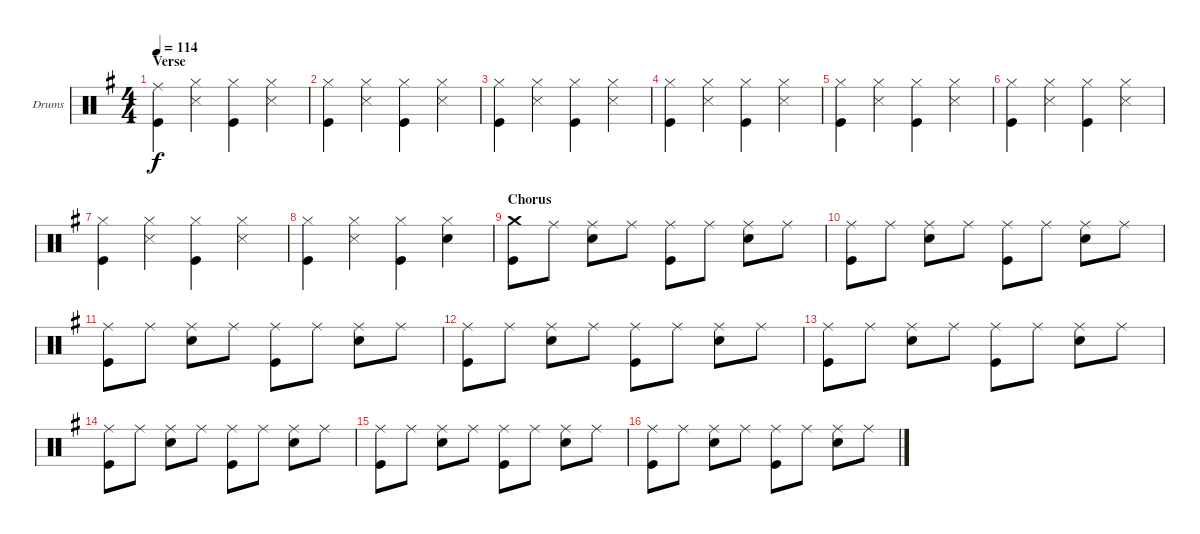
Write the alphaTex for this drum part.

\bracketExtendMode groupsimilarinstruments
\firstSystemTrackNameOrientation horizontal
\otherSystemsTrackNameOrientation horizontal
\track ("Drumkit" "Drums") {instrument percussion}
\staff {score}
\articulation defaults
\ts (4 4)
\section ("" "Verse")
\tempo 114
\clef neutral
\scale
1.04288
\ks g
("Ride (middle)" "Kick (hit)").4{dy f} ("Hi-Hat (closed)" "Snare (side stick) 3").4 ("Hi-Hat (closed)" "Kick (hit)").4 ("Hi-Hat (closed)" "Snare (side stick) 3").4 |
\scale
0.957125 ("Hi-Hat (closed)" "Kick (hit)").4 ("Hi-Hat (closed)" "Snare (side stick) 3").4 ("Hi-Hat (closed)" "Kick (hit)").4 ("Hi-Hat (closed)" "Snare (side stick) 3").4 |
\scale
1.04288 ("Hi-Hat (closed)" "Kick (hit)").4 ("Hi-Hat (closed)" "Snare (side stick) 3").4 ("Hi-Hat (closed)" "Kick (hit)").4 ("Hi-Hat (closed)" "Snare (side stick) 3").4 |
\scale
0.957125 ("Hi-Hat (closed)" "Kick (hit)").4 ("Hi-Hat (closed)" "Snare (side stick) 3").4 ("Hi-Hat (closed)" "Kick (hit)").4 ("Hi-Hat (closed)" "Snare (side stick) 3").4 |
\scale
1.04288 ("Hi-Hat (closed)" "Kick (hit)").4 ("Hi-Hat (closed)" "Snare (side stick) 3").4 ("Hi-Hat (closed)" "Kick (hit)").4 ("Hi-Hat (closed)" "Snare (side stick) 3").4 |
\scale
0.957125 ("Hi-Hat (closed)" "Kick (hit)").4 ("Hi-Hat (closed)" "Snare (side stick) 3").4 ("Hi-Hat (closed)" "Kick (hit)").4 ("Hi-Hat (closed)" "Snare (side stick) 3").4 |
\scale
1.04288 ("Hi-Hat (closed)" "Kick (hit)").4 ("Hi-Hat (closed)" "Snare (side stick) 3").4 ("Hi-Hat (closed)" "Kick (hit)").4 ("Hi-Hat (closed)" "Snare (side stick) 3").4 |
\scale
0.957125 ("Hi-Hat (closed)" "Kick (hit)").4 ("Hi-Hat (closed)" "Snare (side stick) 3").4 ("Hi-Hat (closed)" "Kick (hit)").4 ("Hi-Hat (closed)" "Snare (hit) 2").4 |
\section ("" "Chorus")
\scale
1.04288 ("Crash medium (hit)" "Kick (hit)").8 "Ride (middle)".8 ("Ride (middle)" "Snare (hit) 2").8 "Ride (middle)".8 ("Ride (middle)" "Kick (hit)").8 "Ride (middle)".8 ("Ride (middle)" "Snare (hit) 2").8 "Ride (middle)".8 |
\scale
0.957125 ("Ride (middle)" "Kick (hit)").8 "Ride (middle)".8 ("Ride (middle)" "Snare (hit) 2").8 "Ride (middle)".8 ("Ride (middle)" "Kick (hit)").8 "Ride (middle)".8 ("Ride (middle)" "Snare (hit) 2").8 "Ride (middle)".8 |
\scale
1.04288 ("Ride (middle)" "Kick (hit)").8 "Ride (middle)".8 ("Ride (middle)" "Snare (hit) 2").8 "Ride (middle)".8 ("Ride (middle)" "Kick (hit)").8 "Ride (middle)".8 ("Ride (middle)" "Snare (hit) 2").8 "Ride (middle)".8 |
\scale
0.957125 ("Ride (middle)" "Kick (hit)").8 "Ride (middle)".8 ("Ride (middle)" "Snare (hit) 2").8 "Ride (middle)".8 ("Ride (middle)" "Kick (hit)").8 "Ride (middle)".8 ("Ride (middle)" "Snare (hit) 2").8 "Ride (middle)".8 |
\scale
1.04288 ("Ride (middle)" "Kick (hit)").8 "Ride (middle)".8 ("Ride (middle)" "Snare (hit) 2").8 "Ride (middle)".8 ("Ride (middle)" "Kick (hit)").8 "Ride (middle)".8 ("Ride (middle)" "Snare (hit) 2").8 "Ride (middle)".8 |
\scale
0.957125 ("Ride (middle)" "Kick (hit)").8 "Ride (middle)".8 ("Ride (middle)" "Snare (hit) 2").8 "Ride (middle)".8 ("Ride (middle)" "Kick (hit)").8 "Ride (middle)".8 ("Ride (middle)" "Snare (hit) 2").8 "Ride (middle)".8 |
\scale
1.04288 ("Ride (middle)" "Kick (hit)").8 "Ride (middle)".8 ("Ride (middle)" "Snare (hit) 2").8 "Ride (middle)".8 ("Ride (middle)" "Kick (hit)").8 "Ride (middle)".8 ("Ride (middle)" "Snare (hit) 2").8 "Ride (middle)".8 |
\scale
0.957125 ("Ride (middle)" "Kick (hit)").8 "Ride (middle)".8 ("Ride (middle)" "Snare (hit) 2").8 "Ride (middle)".8 ("Ride (middle)" "Kick (hit)").8 "Ride (middle)".8 ("Ride (middle)" "Snare (hit) 2").8 "Ride (middle)".8
